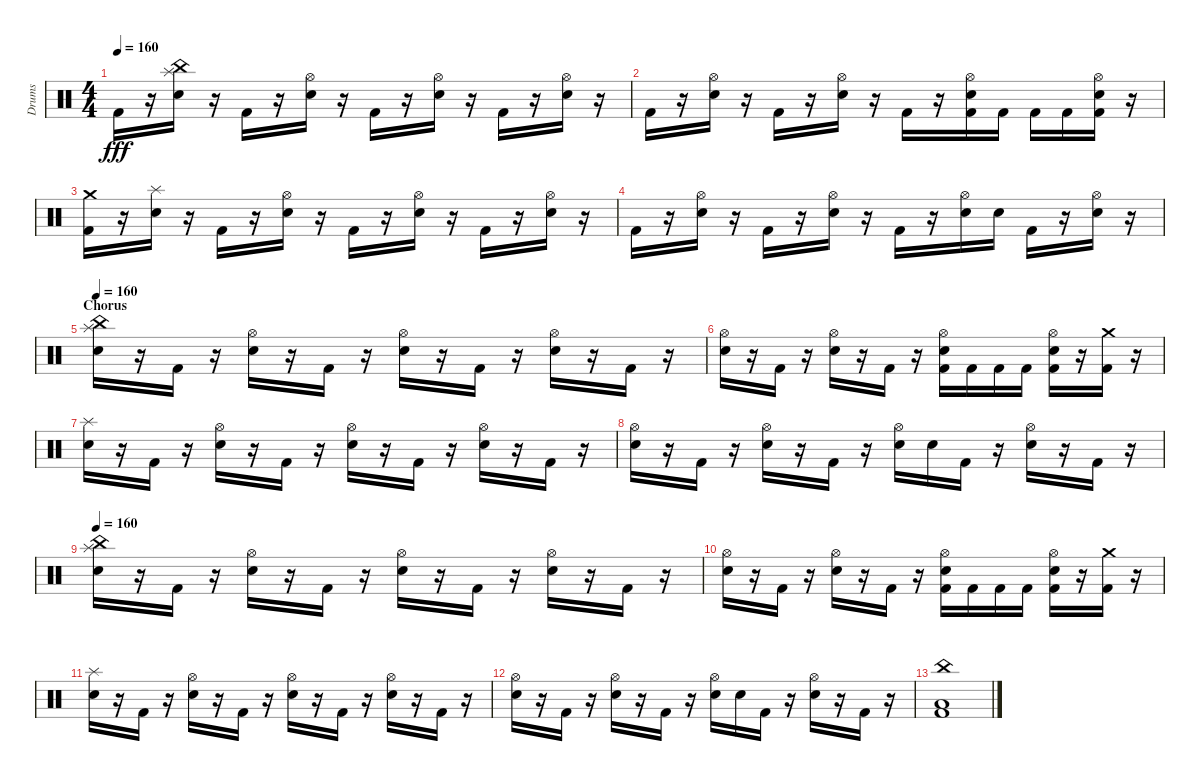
\track ("Drums" "Drums") {instrument percussion}
\staff {score}
\articulation defaults
\ts (4 4)
\tempo 160
\clef neutral
\ks c "Kick (hit) 2".16{dy fff}
r.16 ("Snare (hit) 2" "Splash (hit)" "China (hit)").16 r.16 "Kick (hit) 2".16 r.16 ("Snare (hit) 2" "Hi-Hat (open)").16 r.16 "Kick (hit) 2".16 r.16 ("Snare (hit) 2" "Hi-Hat (open)").16 r.16 "Kick (hit) 2".16 r.16 ("Snare (hit) 2" "Hi-Hat (open)").16 r.16 |
"Kick (hit) 2".16 r.16 ("Snare (hit) 2" "Hi-Hat (open)").16 r.16 "Kick (hit) 2".16 r.16 ("Snare (hit) 2" "Hi-Hat (open)").16 r.16 "Kick (hit) 2".16 r.16 ("Kick (hit) 2" "Snare (hit) 2" "Hi-Hat (open)").16 "Kick (hit) 2".16 "Kick (hit) 2".16 "Kick (hit) 2".16 ("Kick (hit) 2" "Snare (hit) 2" "Hi-Hat (open)").16 r.16 |
("Kick (hit) 2" "Crash medium (hit)").16 r.16 ("Snare (hit) 2" "Splash (hit)").16 r.16 "Kick (hit) 2".16 r.16 ("Snare (hit) 2" "Hi-Hat (open)").16 r.16 "Kick (hit) 2".16 r.16 ("Snare (hit) 2" "Hi-Hat (open)").16 r.16 "Kick (hit) 2".16 r.16 ("Snare (hit) 2" "Hi-Hat (open)").16 r.16 |
"Kick (hit) 2".16 r.16 ("Snare (hit) 2" "Hi-Hat (open)").16 r.16 "Kick (hit) 2".16 r.16 ("Snare (hit) 2" "Hi-Hat (open)").16 r.16 "Kick (hit) 2".16 r.16 ("Snare (hit) 2" "Hi-Hat (open)").16 "Snare (hit) 2".16 "Kick (hit) 2".16 r.16 ("Snare (hit) 2" "Hi-Hat (open)").16 r.16 |
\section ("" "Chorus")
\tempo 160
("Snare (hit) 2" "Splash (hit)" "China (hit)").16 r.16 "Kick (hit) 2".16 r.16 ("Snare (hit) 2" "Hi-Hat (open)").16 r.16 "Kick (hit) 2".16 r.16 ("Snare (hit) 2" "Hi-Hat (open)").16 r.16 "Kick (hit) 2".16 r.16 ("Snare (hit) 2" "Hi-Hat (open)").16 r.16 "Kick (hit) 2".16 r.16 |
("Snare (hit) 2" "Hi-Hat (open)").16 r.16 "Kick (hit) 2".16 r.16 ("Snare (hit) 2" "Hi-Hat (open)").16 r.16 "Kick (hit) 2".16 r.16 ("Kick (hit) 2" "Snare (hit) 2" "Hi-Hat (open)").16 "Kick (hit) 2".16 "Kick (hit) 2".16 "Kick (hit) 2".16 ("Kick (hit) 2" "Snare (hit) 2" "Hi-Hat (open)").16 r.16 ("Kick (hit) 2" "Crash medium (hit)").16 r.16 |
("Snare (hit) 2" "Splash (hit)").16 r.16 "Kick (hit) 2".16 r.16 ("Snare (hit) 2" "Hi-Hat (open)").16 r.16 "Kick (hit) 2".16 r.16 ("Snare (hit) 2" "Hi-Hat (open)").16 r.16 "Kick (hit) 2".16 r.16 ("Snare (hit) 2" "Hi-Hat (open)").16 r.16 "Kick (hit) 2".16 r.16 |
("Snare (hit) 2" "Hi-Hat (open)").16 r.16 "Kick (hit) 2".16 r.16 ("Snare (hit) 2" "Hi-Hat (open)").16 r.16 "Kick (hit) 2".16 r.16 ("Snare (hit) 2" "Hi-Hat (open)").16 "Snare (hit) 2".16 "Kick (hit) 2".16 r.16 ("Snare (hit) 2" "Hi-Hat (open)").16 r.16 "Kick (hit) 2".16 r.16 |
\tempo 160
("Snare (hit) 2" "Splash (hit)" "China (hit)").16 r.16 "Kick (hit) 2".16 r.16 ("Snare (hit) 2" "Hi-Hat (open)").16 r.16 "Kick (hit) 2".16 r.16 ("Snare (hit) 2" "Hi-Hat (open)").16 r.16 "Kick (hit) 2".16 r.16 ("Snare (hit) 2" "Hi-Hat (open)").16 r.16 "Kick (hit) 2".16 r.16 |
("Snare (hit) 2" "Hi-Hat (open)").16 r.16 "Kick (hit) 2".16 r.16 ("Snare (hit) 2" "Hi-Hat (open)").16 r.16 "Kick (hit) 2".16 r.16 ("Kick (hit) 2" "Snare (hit) 2" "Hi-Hat (open)").16 "Kick (hit) 2".16 "Kick (hit) 2".16 "Kick (hit) 2".16 ("Kick (hit) 2" "Snare (hit) 2" "Hi-Hat (open)").16 r.16 ("Kick (hit) 2" "Crash medium (hit)").16 r.16 |
("Snare (hit) 2" "Splash (hit)").16 r.16 "Kick (hit) 2".16 r.16 ("Snare (hit) 2" "Hi-Hat (open)").16 r.16 "Kick (hit) 2".16 r.16 ("Snare (hit) 2" "Hi-Hat (open)").16 r.16 "Kick (hit) 2".16 r.16 ("Snare (hit) 2" "Hi-Hat (open)").16 r.16 "Kick (hit) 2".16 r.16 |
("Snare (hit) 2" "Hi-Hat (open)").16 r.16 "Kick (hit) 2".16 r.16 ("Snare (hit) 2" "Hi-Hat (open)").16 r.16 "Kick (hit) 2".16 r.16 ("Snare (hit) 2" "Hi-Hat (open)").16 "Snare (hit) 2".16 "Kick (hit) 2".16 r.16 ("Snare (hit) 2" "Hi-Hat (open)").16 r.16 "Kick (hit) 2".16 r.16 |
("Kick (hit) 2" "Low Tom (hit)" "China (hit)").1
